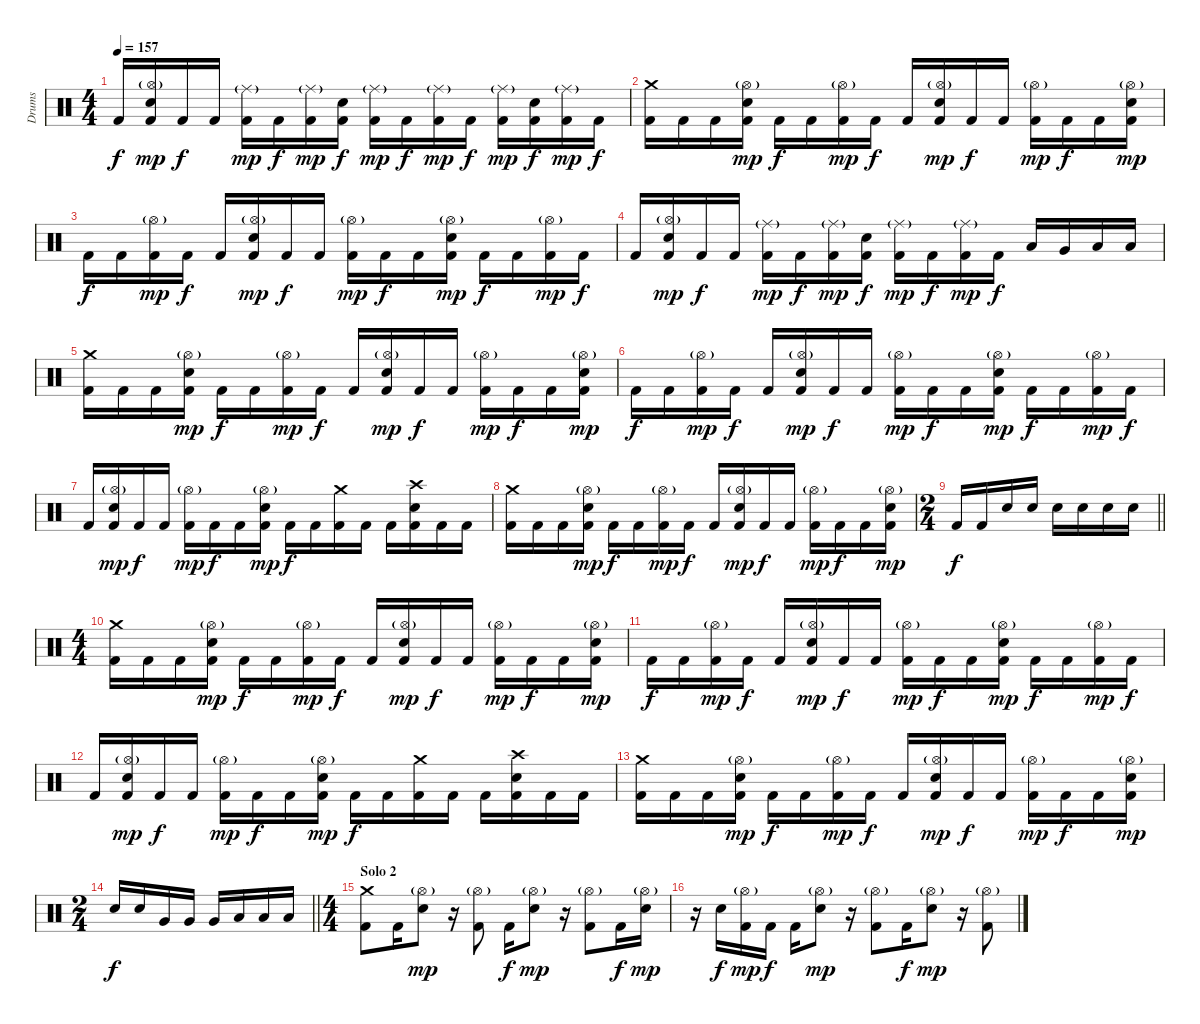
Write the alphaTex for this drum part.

\track ("Drums" "Drums") {instrument percussion}
\staff {score}
\articulation defaults
\ts (4 4)
\tempo 157
\clef neutral
\ks c "Kick (hit) 2".16{dy f}
("Hi-Hat (open)"{g} "Snare (hit) 2" "Kick (hit) 2").16{dy mp} "Kick (hit) 2".16{dy f} "Kick (hit) 2".16 ("Ride (middle)"{g} "Kick (hit) 2").16{dy mp} "Kick (hit) 2".16{dy f} ("Ride (middle)"{g} "Kick (hit) 2").16{dy mp} ("Snare (hit) 2" "Kick (hit) 2").16{dy f} ("Ride (middle)"{g} "Kick (hit) 2").16{dy mp} "Kick (hit) 2".16{dy f} ("Ride (middle)"{g} "Kick (hit) 2").16{dy mp} "Kick (hit) 2".16{dy f} ("Ride (middle)"{g} "Kick (hit) 2").16{dy mp} ("Snare (hit) 2" "Kick (hit) 2").16{dy f} ("Ride (middle)"{g} "Kick (hit) 2").16{dy mp} "Kick (hit) 2".16{dy f} |
("Crash medium (hit)" "Kick (hit) 2").16 "Kick (hit) 2".16 "Kick (hit) 2".16 ("Hi-Hat (open)"{g} "Snare (hit) 2" "Kick (hit) 2").16{dy mp} "Kick (hit) 2".16{dy f} "Kick (hit) 2".16 ("Hi-Hat (open)"{g} "Kick (hit) 2").16{dy mp} "Kick (hit) 2".16{dy f} "Kick (hit) 2".16 ("Hi-Hat (open)"{g} "Snare (hit) 2" "Kick (hit) 2").16{dy mp} "Kick (hit) 2".16{dy f} "Kick (hit) 2".16 ("Hi-Hat (open)"{g} "Kick (hit) 2").16{dy mp} "Kick (hit) 2".16{dy f} "Kick (hit) 2".16 ("Hi-Hat (open)"{g} "Snare (hit) 2" "Kick (hit) 2").16{dy mp} |
"Kick (hit) 2".16{dy f} "Kick (hit) 2".16 ("Hi-Hat (open)"{g} "Kick (hit) 2").16{dy mp} "Kick (hit) 2".16{dy f} "Kick (hit) 2".16 ("Hi-Hat (open)"{g} "Snare (hit) 2" "Kick (hit) 2").16{dy mp} "Kick (hit) 2".16{dy f} "Kick (hit) 2".16 ("Hi-Hat (open)"{g} "Kick (hit) 2").16{dy mp} "Kick (hit) 2".16{dy f} "Kick (hit) 2".16 ("Hi-Hat (open)"{g} "Snare (hit) 2" "Kick (hit) 2").16{dy mp} "Kick (hit) 2".16{dy f} "Kick (hit) 2".16 ("Hi-Hat (open)"{g} "Kick (hit) 2").16{dy mp} "Kick (hit) 2".16{dy f} |
"Kick (hit) 2".16 ("Hi-Hat (open)"{g} "Snare (hit) 2" "Kick (hit) 2").16{dy mp} "Kick (hit) 2".16{dy f} "Kick (hit) 2".16 ("Ride (middle)"{g} "Kick (hit) 2").16{dy mp} "Kick (hit) 2".16{dy f} ("Ride (middle)"{g} "Kick (hit) 2").16{dy mp} ("Snare (hit) 2" "Kick (hit) 2").16{dy f} ("Ride (middle)"{g} "Kick (hit) 2").16{dy mp} "Kick (hit) 2".16{dy f} ("Ride (middle)"{g} "Kick (hit) 2").16{dy mp} "Kick (hit) 2".16{dy f} "Low Tom (hit)".16 "Very Low Tom (hit)".16 "Low Floor Tom (hit)".16 "Low Floor Tom (hit)".16 |
("Crash medium (hit)" "Kick (hit) 2").16 "Kick (hit) 2".16 "Kick (hit) 2".16 ("Hi-Hat (open)"{g} "Snare (hit) 2" "Kick (hit) 2").16{dy mp} "Kick (hit) 2".16{dy f} "Kick (hit) 2".16 ("Hi-Hat (open)"{g} "Kick (hit) 2").16{dy mp} "Kick (hit) 2".16{dy f} "Kick (hit) 2".16 ("Hi-Hat (open)"{g} "Snare (hit) 2" "Kick (hit) 2").16{dy mp} "Kick (hit) 2".16{dy f} "Kick (hit) 2".16 ("Hi-Hat (open)"{g} "Kick (hit) 2").16{dy mp} "Kick (hit) 2".16{dy f} "Kick (hit) 2".16 ("Hi-Hat (open)"{g} "Snare (hit) 2" "Kick (hit) 2").16{dy mp} |
"Kick (hit) 2".16{dy f} "Kick (hit) 2".16 ("Hi-Hat (open)"{g} "Kick (hit) 2").16{dy mp} "Kick (hit) 2".16{dy f} "Kick (hit) 2".16 ("Hi-Hat (open)"{g} "Snare (hit) 2" "Kick (hit) 2").16{dy mp} "Kick (hit) 2".16{dy f} "Kick (hit) 2".16 ("Hi-Hat (open)"{g} "Kick (hit) 2").16{dy mp} "Kick (hit) 2".16{dy f} "Kick (hit) 2".16 ("Hi-Hat (open)"{g} "Snare (hit) 2" "Kick (hit) 2").16{dy mp} "Kick (hit) 2".16{dy f} "Kick (hit) 2".16 ("Hi-Hat (open)"{g} "Kick (hit) 2").16{dy mp} "Kick (hit) 2".16{dy f} |
"Kick (hit) 2".16 ("Hi-Hat (open)"{g} "Snare (hit) 2" "Kick (hit) 2").16{dy mp} "Kick (hit) 2".16{dy f} "Kick (hit) 2".16 ("Hi-Hat (open)"{g} "Kick (hit) 2").16{dy mp} "Kick (hit) 2".16{dy f} "Kick (hit) 2".16 ("Hi-Hat (open)"{g} "Snare (hit) 2" "Kick (hit) 2").16{dy mp} "Kick (hit) 2".16{dy f} "Kick (hit) 2".16 ("Crash medium (hit)" "Kick (hit) 2").16 "Kick (hit) 2".16 "Kick (hit) 2".16 ("Crash high (hit)" "Snare (hit) 2" "Kick (hit) 2").16 "Kick (hit) 2".16 "Kick (hit) 2".16 |
("Crash medium (hit)" "Kick (hit) 2").16 "Kick (hit) 2".16 "Kick (hit) 2".16 ("Hi-Hat (open)"{g} "Snare (hit) 2" "Kick (hit) 2").16{dy mp} "Kick (hit) 2".16{dy f} "Kick (hit) 2".16 ("Hi-Hat (open)"{g} "Kick (hit) 2").16{dy mp} "Kick (hit) 2".16{dy f} "Kick (hit) 2".16 ("Hi-Hat (open)"{g} "Snare (hit) 2" "Kick (hit) 2").16{dy mp} "Kick (hit) 2".16{dy f} "Kick (hit) 2".16 ("Hi-Hat (open)"{g} "Kick (hit) 2").16{dy mp} "Kick (hit) 2".16{dy f} "Kick (hit) 2".16 ("Hi-Hat (open)"{g} "Snare (hit) 2" "Kick (hit) 2").16{dy mp} |
\ts (2 4)
\barLineRight lightlight "Kick (hit) 2".16{dy f} "Kick (hit) 2".16 "Snare (hit) 2".16 "Snare (hit) 2".16 "Snare (hit) 2".16 "Snare (hit) 2".16 "Snare (hit) 2".16 "Snare (hit) 2".16
|
\ts (4 4)
("Crash medium (hit)" "Kick (hit) 2").16 "Kick (hit) 2".16 "Kick (hit) 2".16 ("Hi-Hat (open)"{g} "Snare (hit) 2" "Kick (hit) 2").16{dy mp} "Kick (hit) 2".16{dy f} "Kick (hit) 2".16 ("Hi-Hat (open)"{g} "Kick (hit) 2").16{dy mp} "Kick (hit) 2".16{dy f} "Kick (hit) 2".16 ("Hi-Hat (open)"{g} "Snare (hit) 2" "Kick (hit) 2").16{dy mp} "Kick (hit) 2".16{dy f} "Kick (hit) 2".16 ("Hi-Hat (open)"{g} "Kick (hit) 2").16{dy mp} "Kick (hit) 2".16{dy f} "Kick (hit) 2".16 ("Hi-Hat (open)"{g} "Snare (hit) 2" "Kick (hit) 2").16{dy mp} |
"Kick (hit) 2".16{dy f} "Kick (hit) 2".16 ("Hi-Hat (open)"{g} "Kick (hit) 2").16{dy mp} "Kick (hit) 2".16{dy f} "Kick (hit) 2".16 ("Hi-Hat (open)"{g} "Snare (hit) 2" "Kick (hit) 2").16{dy mp} "Kick (hit) 2".16{dy f} "Kick (hit) 2".16 ("Hi-Hat (open)"{g} "Kick (hit) 2").16{dy mp} "Kick (hit) 2".16{dy f} "Kick (hit) 2".16 ("Hi-Hat (open)"{g} "Snare (hit) 2" "Kick (hit) 2").16{dy mp} "Kick (hit) 2".16{dy f} "Kick (hit) 2".16 ("Hi-Hat (open)"{g} "Kick (hit) 2").16{dy mp} "Kick (hit) 2".16{dy f} |
"Kick (hit) 2".16 ("Hi-Hat (open)"{g} "Snare (hit) 2" "Kick (hit) 2").16{dy mp} "Kick (hit) 2".16{dy f} "Kick (hit) 2".16 ("Hi-Hat (open)"{g} "Kick (hit) 2").16{dy mp} "Kick (hit) 2".16{dy f} "Kick (hit) 2".16 ("Hi-Hat (open)"{g} "Snare (hit) 2" "Kick (hit) 2").16{dy mp} "Kick (hit) 2".16{dy f} "Kick (hit) 2".16 ("Crash medium (hit)" "Kick (hit) 2").16 "Kick (hit) 2".16 "Kick (hit) 2".16 ("Crash high (hit)" "Snare (hit) 2" "Kick (hit) 2").16 "Kick (hit) 2".16 "Kick (hit) 2".16 |
("Crash medium (hit)" "Kick (hit) 2").16 "Kick (hit) 2".16 "Kick (hit) 2".16 ("Hi-Hat (open)"{g} "Snare (hit) 2" "Kick (hit) 2").16{dy mp} "Kick (hit) 2".16{dy f} "Kick (hit) 2".16 ("Hi-Hat (open)"{g} "Kick (hit) 2").16{dy mp} "Kick (hit) 2".16{dy f} "Kick (hit) 2".16 ("Hi-Hat (open)"{g} "Snare (hit) 2" "Kick (hit) 2").16{dy mp} "Kick (hit) 2".16{dy f} "Kick (hit) 2".16 ("Hi-Hat (open)"{g} "Kick (hit) 2").16{dy mp} "Kick (hit) 2".16{dy f} "Kick (hit) 2".16 ("Hi-Hat (open)"{g} "Snare (hit) 2" "Kick (hit) 2").16{dy mp} |
\ts (2 4)
\barLineRight lightlight "Snare (hit) 2".16{dy f} "Snare (hit) 2".16 "Very Low Tom (hit)".16 "Very Low Tom (hit)".16 "Very Low Tom (hit)".16 "Low Floor Tom (hit)".16 "Low Floor Tom (hit)".16 "Low Floor Tom (hit)".16
|
\ts (4 4)
\section ("" "Solo 2")
("Crash medium (hit)" "Kick (hit) 2").8 "Kick (hit) 2".16 ("Snare (hit) 2" "Hi-Hat (open)"{g}).8{dy mp} r.16 ("Hi-Hat (open)"{g} "Kick (hit) 2").8 "Kick (hit) 2".16{dy f} ("Snare (hit) 2" "Hi-Hat (open)"{g}).8{dy mp} r.16 ("Hi-Hat (open)"{g} "Kick (hit) 2").8 "Kick (hit) 2".16{dy f} ("Snare (hit) 2" "Hi-Hat (open)"{g}).16{dy mp} |
r.16 "Snare (hit) 2".16{dy f} ("Hi-Hat (open)"{g} "Kick (hit) 2").16{dy mp} "Kick (hit) 2".16{dy f} "Kick (hit) 2".16 ("Snare (hit) 2" "Hi-Hat (open)"{g}).8{dy mp} r.16 ("Hi-Hat (open)"{g} "Kick (hit) 2").8 "Kick (hit) 2".16{dy f} ("Snare (hit) 2" "Hi-Hat (open)"{g}).8{dy mp} r.16 ("Hi-Hat (open)"{g} "Kick (hit) 2").8
